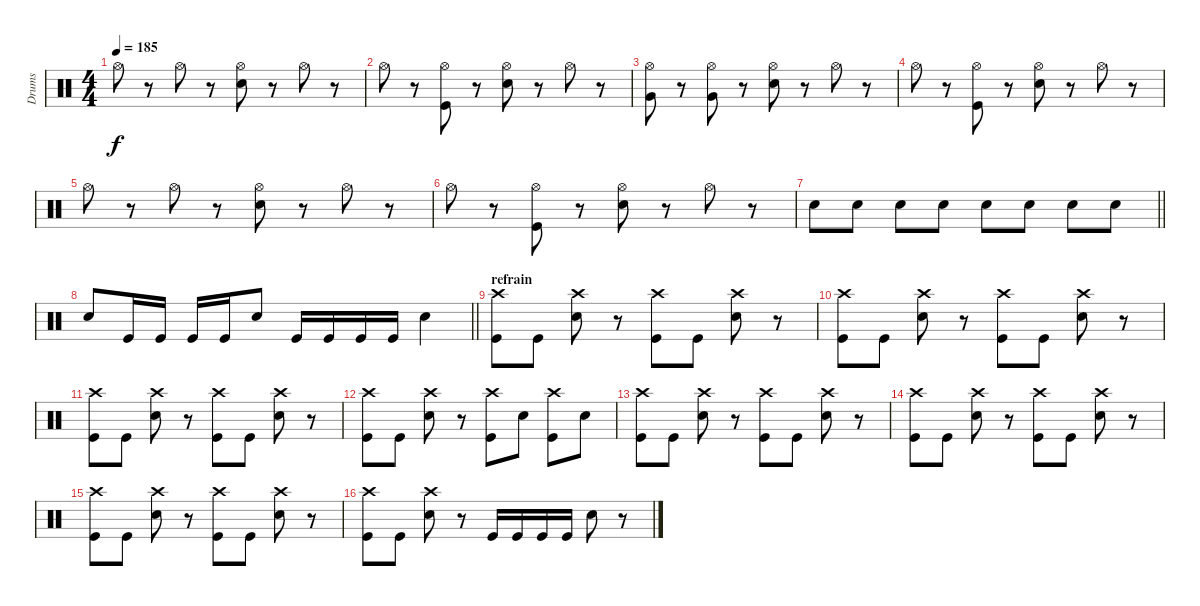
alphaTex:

\track ("Drums" "Drums") {instrument percussion}
\staff {score}
\articulation defaults
\ts (4 4)
\tempo 185
\clef neutral
\ks c "Hi-Hat (open)".8{dy f}
r.8 "Hi-Hat (open)".8 r.8 ("Hi-Hat (open)" "Electric Snare (hit)").8 r.8 "Hi-Hat (open)".8 r.8 |
"Hi-Hat (open)".8 r.8 ("Hi-Hat (open)" "Kick (hit)").8 r.8 ("Hi-Hat (open)" "Electric Snare (hit)").8 r.8 "Hi-Hat (open)".8 r.8 |
("Hi-Hat (open)" "Very Low Tom (hit)").8 r.8 ("Hi-Hat (open)" "Very Low Tom (hit)").8 r.8 ("Hi-Hat (open)" "Electric Snare (hit)").8 r.8 "Hi-Hat (open)".8 r.8 |
"Hi-Hat (open)".8 r.8 ("Hi-Hat (open)" "Kick (hit)").8 r.8 ("Hi-Hat (open)" "Electric Snare (hit)").8 r.8 "Hi-Hat (open)".8 r.8 |
"Hi-Hat (open)".8 r.8 "Hi-Hat (open)".8 r.8 ("Hi-Hat (open)" "Electric Snare (hit)").8 r.8 "Hi-Hat (open)".8 r.8 |
"Hi-Hat (open)".8 r.8 ("Hi-Hat (open)" "Kick (hit)").8 r.8 ("Hi-Hat (open)" "Electric Snare (hit)").8 r.8 "Hi-Hat (open)".8 r.8 |
\barLineRight lightlight "Electric Snare (hit)".8 "Electric Snare (hit)".8 "Electric Snare (hit)".8 "Electric Snare (hit)".8 "Electric Snare (hit)".8 "Electric Snare (hit)".8 "Electric Snare (hit)".8 "Electric Snare (hit)".8
|
\barLineRight lightlight "Electric Snare (hit)".8 "Kick (hit)".16 "Kick (hit)".16 "Kick (hit)".16 "Kick (hit)".16 "Electric Snare (hit)".8 "Kick (hit)".16 "Kick (hit)".16 "Kick (hit)".16 "Kick (hit)".16 "Electric Snare (hit)".4
|
\section ("" "refrain")
("Crash high (hit)" "Kick (hit)").8 "Kick (hit)".8 ("Crash high (hit)" "Electric Snare (hit)").8 r.8 ("Crash high (hit)" "Kick (hit)").8 "Kick (hit)".8 ("Crash high (hit)" "Electric Snare (hit)").8 r.8 |
("Crash high (hit)" "Kick (hit)").8 "Kick (hit)".8 ("Crash high (hit)" "Electric Snare (hit)").8 r.8 ("Crash high (hit)" "Kick (hit)").8 "Kick (hit)".8 ("Crash high (hit)" "Electric Snare (hit)").8 r.8 |
("Crash high (hit)" "Kick (hit)").8 "Kick (hit)".8 ("Crash high (hit)" "Electric Snare (hit)").8 r.8 ("Crash high (hit)" "Kick (hit)").8 "Kick (hit)".8 ("Crash high (hit)" "Electric Snare (hit)").8 r.8 |
("Crash high (hit)" "Kick (hit)").8 "Kick (hit)".8 ("Crash high (hit)" "Electric Snare (hit)").8 r.8 ("Crash high (hit)" "Kick (hit)").8 "Electric Snare (hit)".8 ("Crash high (hit)" "Kick (hit)").8 "Electric Snare (hit)".8 |
("Crash high (hit)" "Kick (hit)").8 "Kick (hit)".8 ("Crash high (hit)" "Electric Snare (hit)").8 r.8 ("Crash high (hit)" "Kick (hit)").8 "Kick (hit)".8 ("Crash high (hit)" "Electric Snare (hit)").8 r.8 |
("Crash high (hit)" "Kick (hit)").8 "Kick (hit)".8 ("Crash high (hit)" "Electric Snare (hit)").8 r.8 ("Crash high (hit)" "Kick (hit)").8 "Kick (hit)".8 ("Crash high (hit)" "Electric Snare (hit)").8 r.8 |
("Crash high (hit)" "Kick (hit)").8 "Kick (hit)".8 ("Crash high (hit)" "Electric Snare (hit)").8 r.8 ("Crash high (hit)" "Kick (hit)").8 "Kick (hit)".8 ("Crash high (hit)" "Electric Snare (hit)").8 r.8 |
("Crash high (hit)" "Kick (hit)").8 "Kick (hit)".8 ("Crash high (hit)" "Electric Snare (hit)").8 r.8 "Kick (hit)".16 "Kick (hit)".16 "Kick (hit)".16 "Kick (hit)".16 "Electric Snare (hit)".8 r.8
